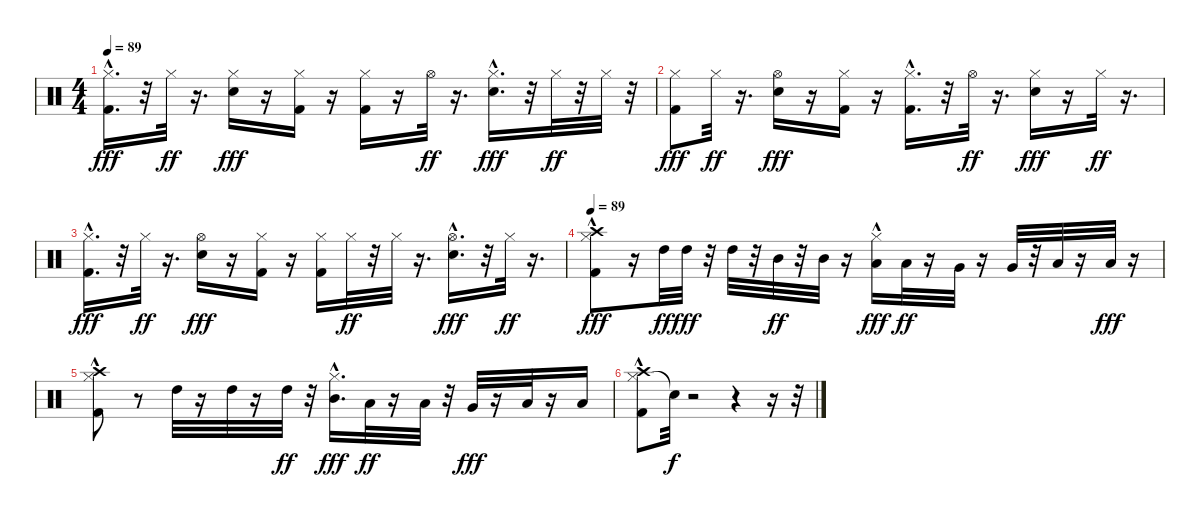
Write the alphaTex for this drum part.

\track "" {instrument percussion}
\staff {score}
\articulation defaults
\ts (4 4)
\tempo 89
\clef neutral
\ks c
("Hi-Hat (closed)" "Kick (hit) 2"{hac}).16{d dy fff} r.32 "Hi-Hat (closed)".32{dy ff} r.16{d} ("Hi-Hat (closed)" "Snare (hit) 2").16{dy fff} r.16 ("Hi-Hat (closed)" "Kick (hit) 2").16 r.16 ("Hi-Hat (closed)" "Kick (hit) 2").16 r.16 "Hi-Hat (open)".32{dy ff} r.16{d} ("Hi-Hat (closed)" "Snare (hit) 2"{hac}).16{d dy fff} r.32 "Hi-Hat (closed)".32{dy ff} r.32 "Hi-Hat (closed)".32 r.32 |
("Hi-Hat (closed)" "Kick (hit) 2").8{dy fff} "Hi-Hat (closed)".32{dy ff} r.16{d} ("Hi-Hat (open)" "Snare (hit) 2").16{dy fff} r.16 ("Hi-Hat (closed)" "Kick (hit) 2").16 r.16 ("Hi-Hat (closed)" "Kick (hit) 2"{hac}).16{d} r.32 "Hi-Hat (open)".32{dy ff} r.16{d} ("Hi-Hat (closed)" "Snare (hit) 2").16{dy fff} r.16 "Hi-Hat (closed)".32{dy ff} r.16{d} |
("Hi-Hat (closed)" "Kick (hit) 2"{hac}).16{d dy fff} r.32 "Hi-Hat (closed)".32{dy ff} r.16{d} ("Hi-Hat (open)" "Snare (hit) 2").16{dy fff} r.16 ("Hi-Hat (closed)" "Kick (hit) 2").16 r.16 ("Hi-Hat (closed)" "Kick (hit) 2").16 "Hi-Hat (closed)".32{dy ff} r.32 "Hi-Hat (closed)".32 r.16{d} ("Hi-Hat (open)" "Snare (hit) 2"{hac}).16{d dy fff} r.32 "Hi-Hat (closed)".32{dy ff} r.16{d} |
\tempo 89
("Hi-Hat (closed)"{hac} "Kick (hit) 2" "Crash high (hit)").8{dy fff} r.16 "High Tom (hit)".32{dy ff} "High Tom (hit)".32{dy fff} r.32 "High Tom (hit)".32 r.32 "Mid Tom (hit)".32{dy ff} r.32 "Mid Tom (hit)".32 r.16 ("Low Tom (hit)" "Hi-Hat (closed)"{hac}).16{dy fff} "Low Tom (hit)".32{dy ff} r.16 "Very Low Tom (hit)".32 r.16 "Very Low Tom (hit)".32 r.32 "Low Floor Tom (hit)".32 r.16 "Low Floor Tom (hit)".32{dy fff} r.16 |
("Crash high (hit)" "Hi-Hat (closed)"{hac} "Kick (hit) 2").8 r.8 "High Tom (hit)".32 r.16 "High Tom (hit)".32 r.16 "High Tom (hit)".32{dy ff} r.32 ("Hi-Hat (closed)"{hac} "Mid Tom (hit)").16{d dy fff} "Low Tom (hit)".32{dy ff} r.16 "Low Tom (hit)".32 r.32 "Very Low Tom (hit)".32{dy fff} r.16 "Low Tom (hit)".32 r.16 "Low Floor Tom (hit)".16 |
("Hi-Hat (closed)"{hac} "Kick (hit) 2" "Crash high (hit)").8 "Snare (hit)"{t}.32{dy f} r.2 r.4 r.16 r.32
